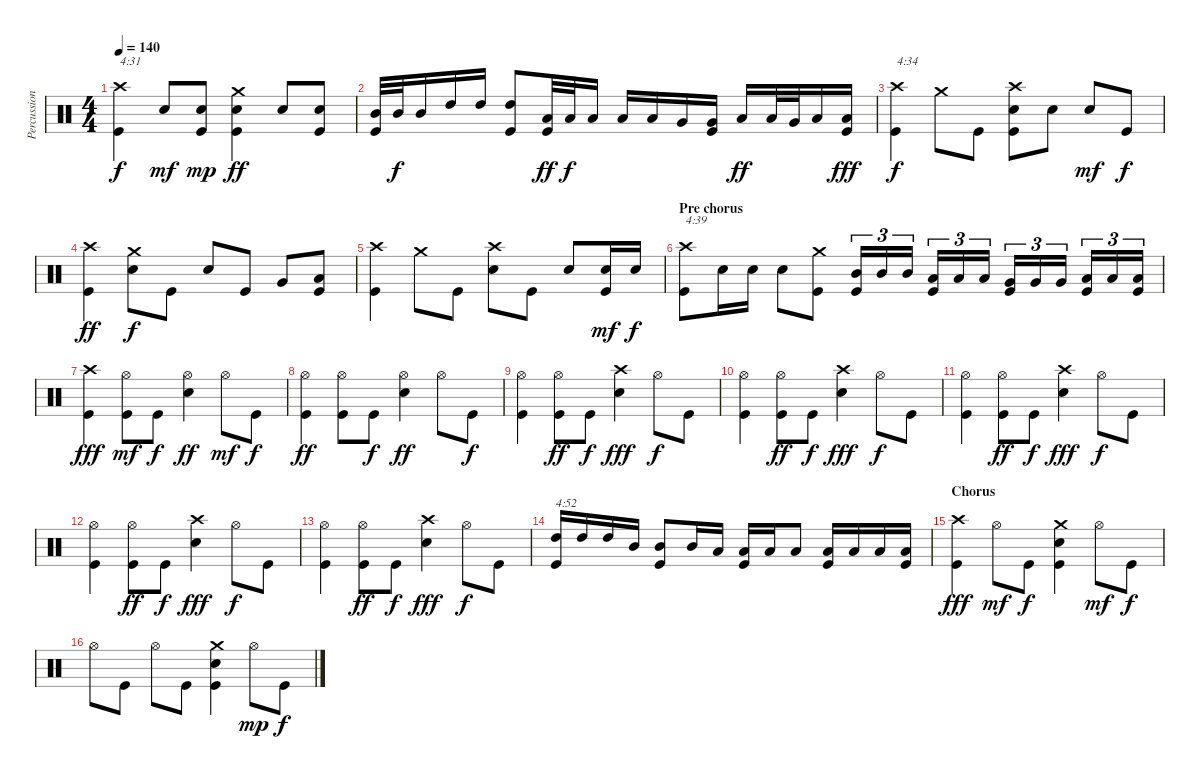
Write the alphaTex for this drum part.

\track ("Percussion" "Percussion") {instrument percussion}
\staff {score}
\articulation defaults
\ts (4 4)
\tempo 140
\clef neutral
\ks c
("Crash high (hit)" "Kick (hit)").4{txt "4:31" dy f} "Electric Snare (hit)".8{dy mf} ("Electric Snare (hit)" "Kick (hit)").8{dy mp} ("Crash medium (hit)" "Electric Snare (hit)" "Kick (hit)").4{dy ff} "Electric Snare (hit)".8 ("Electric Snare (hit)" "Kick (hit)").8 |
("Mid Tom (hit)" "Kick (hit)").32 "Mid Tom (hit)".32{dy f} "Mid Tom (hit)".16 "High Tom (hit)".16 "High Tom (hit)".16 ("High Tom (hit)" "Kick (hit)").8 ("Low Tom (hit)" "Kick (hit)").32{dy ff} "Low Tom (hit)".32{dy f} "Low Tom (hit)".16 "Low Tom (hit)".16 "Low Tom (hit)".16 "Very Low Tom (hit)".16 ("Very Low Tom (hit)" "Kick (hit)").16 "Low Tom (hit)".16{dy ff} "Low Tom (hit)".32 "Very Low Tom (hit)".32 "Low Floor Tom (hit)".16 ("Low Floor Tom (hit)" "Kick (hit)").16{dy fff} |
("Crash high (hit)" "Kick (hit)").4{txt "4:34" dy f} "Crash medium (hit)".8 "Kick (hit)".8 ("Crash high (hit)" "Electric Snare (hit)" "Kick (hit)").8 "Electric Snare (hit)".8 "Electric Snare (hit)".8{dy mf} "Kick (hit)".8{dy f} |
("Crash high (hit)" "Kick (hit)").4{dy ff} ("Crash medium (hit)" "Electric Snare (hit)").8{dy f} "Kick (hit)".8 "Electric Snare (hit)".8 "Kick (hit)".8 "Very Low Tom (hit)".8 ("Low Floor Tom (hit)" "Kick (hit)").8 |
("Crash high (hit)" "Kick (hit)").4 "Crash medium (hit)".8 "Kick (hit)".8 ("Crash high (hit)" "Electric Snare (hit)").8 "Kick (hit)".8 "Electric Snare (hit)".8 ("Electric Snare (hit)" "Kick (hit)").16{dy mf} "Electric Snare (hit)".16{dy f} |
\section ("" "Pre chorus")
("Crash high (hit)" "Kick (hit)").8{txt "4:39"} "Electric Snare (hit)".16 "Electric Snare (hit)".16 "Electric Snare (hit)".8 ("Crash medium (hit)" "Kick (hit)").8 ("Mid Tom (hit)" "Kick (hit)").16{tu (3 2)} "Mid Tom (hit)".16{tu (3 2)} "Mid Tom (hit)".16{tu (3 2)} ("Low Tom (hit)" "Kick (hit)").16{tu (3 2)} "Low Tom (hit)".16{tu (3 2)} "Low Tom (hit)".16{tu (3 2)} ("Very Low Tom (hit)" "Kick (hit)").16{tu (3 2)} "Very Low Tom (hit)".16{tu (3 2)} "Very Low Tom (hit)".16{tu (3 2)} ("Low Floor Tom (hit)" "Kick (hit)").16{tu (3 2)} "Low Floor Tom (hit)".16{tu (3 2)} ("Low Floor Tom (hit)" "Kick (hit)").16{tu (3 2)} |
("Crash high (hit)" "Kick (hit)").4{dy fff} ("Hi-Hat (open)" "Kick (hit)").8{dy mf} "Kick (hit)".8{dy f} ("Hi-Hat (open)" "Electric Snare (hit)").4{dy ff} "Hi-Hat (open)".8{dy mf} "Kick (hit)".8{dy f} |
("Hi-Hat (open)" "Kick (hit)").4{dy ff} ("Hi-Hat (open)" "Kick (hit)").8 "Kick (hit)".8{dy f} ("Hi-Hat (open)" "Electric Snare (hit)").4{dy ff} "Hi-Hat (open)".8 "Kick (hit)".8{dy f} |
("Hi-Hat (open)" "Kick (hit)").4 ("Hi-Hat (open)" "Kick (hit)").8{dy ff} "Kick (hit)".8{dy f} ("Crash high (hit)" "Electric Snare (hit)").4{dy fff} "Hi-Hat (open)".8{dy f} "Kick (hit)".8 |
("Hi-Hat (open)" "Kick (hit)").4 ("Hi-Hat (open)" "Kick (hit)").8{dy ff} "Kick (hit)".8{dy f} ("Crash high (hit)" "Electric Snare (hit)").4{dy fff} "Hi-Hat (open)".8{dy f} "Kick (hit)".8 |
("Hi-Hat (open)" "Kick (hit)").4 ("Hi-Hat (open)" "Kick (hit)").8{dy ff} "Kick (hit)".8{dy f} ("Crash high (hit)" "Electric Snare (hit)").4{dy fff} "Hi-Hat (open)".8{dy f} "Kick (hit)".8 |
("Hi-Hat (open)" "Kick (hit)").4 ("Hi-Hat (open)" "Kick (hit)").8{dy ff} "Kick (hit)".8{dy f} ("Crash high (hit)" "Electric Snare (hit)").4{dy fff} "Hi-Hat (open)".8{dy f} "Kick (hit)".8 |
("Hi-Hat (open)" "Kick (hit)").4 ("Hi-Hat (open)" "Kick (hit)").8{dy ff} "Kick (hit)".8{dy f} ("Crash high (hit)" "Electric Snare (hit)").4{dy fff} "Hi-Hat (open)".8{dy f} "Kick (hit)".8 |
("High Tom (hit)" "Kick (hit)").16{txt "4:52"} "High Tom (hit)".16 "High Tom (hit)".16 "Mid Tom (hit)".16 ("Mid Tom (hit)" "Kick (hit)").8 "Mid Tom (hit)".16 "Low Tom (hit)".16 ("Low Tom (hit)" "Kick (hit)").16 "Low Tom (hit)".16 "Low Tom (hit)".8 ("Low Floor Tom (hit)" "Kick (hit)").16 "Low Floor Tom (hit)".16 "Low Floor Tom (hit)".16 ("Low Floor Tom (hit)" "Kick (hit)").16 |
\section ("" "Chorus")
("Crash high (hit)" "Kick (hit)").4{dy fff} "Hi-Hat (open)".8{dy mf} "Kick (hit)".8{dy f} ("Crash medium (hit)" "Electric Snare (hit)" "Kick (hit)").4 "Hi-Hat (open)".8{dy mf} "Kick (hit)".8{dy f} |
"Hi-Hat (open)".8 "Kick (hit)".8 "Hi-Hat (open)".8 "Kick (hit)".8 ("Crash medium (hit)" "Electric Snare (hit)" "Kick (hit)").4 "Hi-Hat (open)".8{dy mp} "Kick (hit)".8{dy f}
